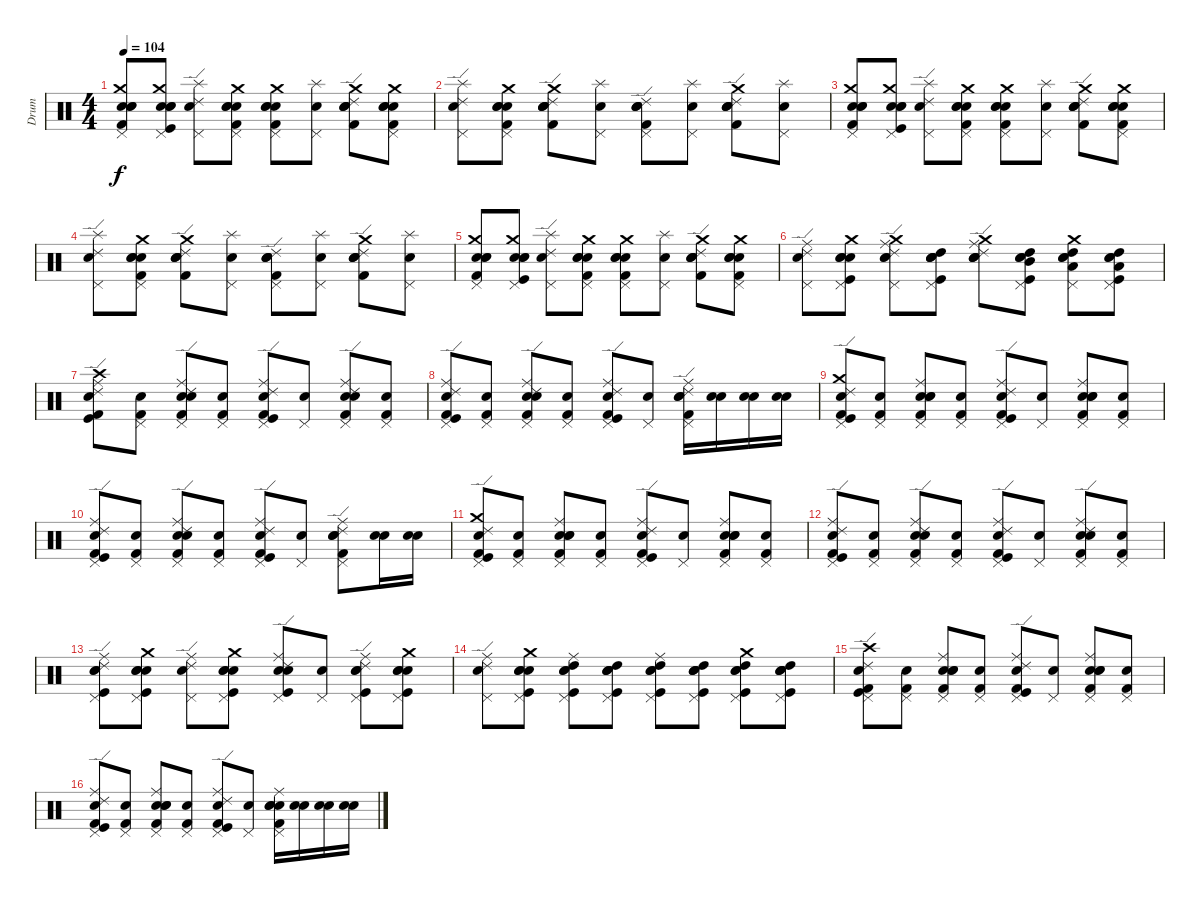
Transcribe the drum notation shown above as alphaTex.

\track ("Drum" "Drum") {instrument percussion}
\staff {score}
\articulation defaults
\ts (4 4)
\tempo 104
\clef neutral
\ks c
("Snare (hit)" "Kick (hit) 2" "Snare (hit) 2" "Pedal Hi-Hat (hit)" "Crash medium (hit)" "Electric Snare (hit)").8{dy f} ("Snare (hit)" "Pedal Hi-Hat (hit)" "Kick (hit)" "Snare (hit) 2" "Crash medium (hit)" "Electric Snare (hit)").8 ("Snare (hit)" "Pedal Hi-Hat (hit)" "Splash (hit)" "Ride (edge) 2").8 ("Snare (hit)" "Pedal Hi-Hat (hit)" "Snare (hit) 2" "Kick (hit) 2" "Crash medium (hit)" "Electric Snare (hit)").8 ("Snare (hit)" "Kick (hit) 2" "Snare (hit) 2" "Pedal Hi-Hat (hit)" "Crash medium (hit)" "Electric Snare (hit)").8 ("Snare (hit)" "Splash (hit)" "Pedal Hi-Hat (hit)").8 ("Snare (hit)" "Snare (hit) 2" "Kick (hit) 2" "Ride (edge) 2" "Crash medium (hit)" "Electric Snare (hit)").8 ("Snare (hit)" "Snare (hit) 2" "Kick (hit) 2" "Pedal Hi-Hat (hit)" "Crash medium (hit)" "Electric Snare (hit)").8 |
("Snare (hit)" "Pedal Hi-Hat (hit)" "Splash (hit)" "Ride (edge) 2").8 ("Snare (hit)" "Snare (hit) 2" "Kick (hit) 2" "Pedal Hi-Hat (hit)" "Crash medium (hit)" "Electric Snare (hit)").8 ("Snare (hit)" "Kick (hit) 2" "Snare (hit) 2" "Crash medium (hit)" "Ride (edge) 2" "Electric Snare (hit)").8 ("Snare (hit)" "Splash (hit)" "Pedal Hi-Hat (hit)").8 ("Snare (hit)" "Snare (hit) 2" "Kick (hit) 2" "Pedal Hi-Hat (hit)" "Ride (edge) 2" "Electric Snare (hit)").8 ("Snare (hit)" "Splash (hit)" "Pedal Hi-Hat (hit)").8 ("Snare (hit)" "Kick (hit) 2" "Snare (hit) 2" "Ride (edge) 2" "Crash medium (hit)" "Electric Snare (hit)").8 ("Snare (hit)" "Splash (hit)" "Pedal Hi-Hat (hit)").8 |
("Snare (hit)" "Kick (hit) 2" "Snare (hit) 2" "Pedal Hi-Hat (hit)" "Crash medium (hit)" "Electric Snare (hit)").8 ("Snare (hit)" "Pedal Hi-Hat (hit)" "Kick (hit)" "Snare (hit) 2" "Crash medium (hit)" "Electric Snare (hit)").8 ("Snare (hit)" "Pedal Hi-Hat (hit)" "Splash (hit)" "Ride (edge) 2").8 ("Snare (hit)" "Pedal Hi-Hat (hit)" "Snare (hit) 2" "Kick (hit) 2" "Crash medium (hit)" "Electric Snare (hit)").8 ("Snare (hit)" "Kick (hit) 2" "Snare (hit) 2" "Pedal Hi-Hat (hit)" "Crash medium (hit)" "Electric Snare (hit)").8 ("Snare (hit)" "Splash (hit)" "Pedal Hi-Hat (hit)").8 ("Snare (hit)" "Snare (hit) 2" "Kick (hit) 2" "Ride (edge) 2" "Crash medium (hit)" "Electric Snare (hit)").8 ("Snare (hit)" "Snare (hit) 2" "Kick (hit) 2" "Pedal Hi-Hat (hit)" "Crash medium (hit)" "Electric Snare (hit)").8 |
("Snare (hit)" "Pedal Hi-Hat (hit)" "Splash (hit)" "Ride (edge) 2").8 ("Snare (hit)" "Snare (hit) 2" "Kick (hit) 2" "Pedal Hi-Hat (hit)" "Crash medium (hit)" "Electric Snare (hit)").8 ("Snare (hit)" "Kick (hit) 2" "Snare (hit) 2" "Crash medium (hit)" "Ride (edge) 2" "Electric Snare (hit)").8 ("Snare (hit)" "Splash (hit)" "Pedal Hi-Hat (hit)").8 ("Snare (hit)" "Snare (hit) 2" "Kick (hit) 2" "Pedal Hi-Hat (hit)" "Ride (edge) 2" "Electric Snare (hit)").8 ("Snare (hit)" "Splash (hit)" "Pedal Hi-Hat (hit)").8 ("Snare (hit)" "Kick (hit) 2" "Snare (hit) 2" "Ride (edge) 2" "Crash medium (hit)" "Electric Snare (hit)").8 ("Snare (hit)" "Splash (hit)" "Pedal Hi-Hat (hit)").8 |
("Snare (hit)" "Kick (hit) 2" "Snare (hit) 2" "Pedal Hi-Hat (hit)" "Crash medium (hit)" "Electric Snare (hit)").8 ("Snare (hit)" "Pedal Hi-Hat (hit)" "Kick (hit)" "Snare (hit) 2" "Crash medium (hit)" "Electric Snare (hit)").8 ("Snare (hit)" "Pedal Hi-Hat (hit)" "Splash (hit)" "Ride (edge) 2").8 ("Snare (hit)" "Pedal Hi-Hat (hit)" "Snare (hit) 2" "Kick (hit) 2" "Crash medium (hit)" "Electric Snare (hit)").8 ("Snare (hit)" "Kick (hit) 2" "Snare (hit) 2" "Pedal Hi-Hat (hit)" "Crash medium (hit)" "Electric Snare (hit)").8 ("Snare (hit)" "Splash (hit)" "Pedal Hi-Hat (hit)").8 ("Snare (hit)" "Snare (hit) 2" "Kick (hit) 2" "Ride (edge) 2" "Crash medium (hit)" "Electric Snare (hit)").8 ("Snare (hit)" "Snare (hit) 2" "Kick (hit) 2" "Pedal Hi-Hat (hit)" "Crash medium (hit)" "Electric Snare (hit)").8 |
("Snare (hit)" "Ride (middle)" "Ride (edge) 2" "Pedal Hi-Hat (hit)").8 ("Snare (hit)" "Crash medium (hit)" "Electric Snare (hit)" "Pedal Hi-Hat (hit)" "Kick (hit)" "Snare (hit) 2").8 ("Snare (hit)" "Ride (middle)" "Crash medium (hit)" "Ride (edge) 2" "Electric Snare (hit)" "Pedal Hi-Hat (hit)").8 ("Snare (hit)" "Electric Snare (hit)" "High Tom (hit)" "Kick (hit)" "Snare (hit) 2" "Pedal Hi-Hat (hit)").8 ("Snare (hit)" "Ride (middle)" "Crash medium (hit)" "Ride (edge) 2" "Electric Snare (hit)" "Snare (hit) 2").8 ("Snare (hit)" "Electric Snare (hit)" "Mid Tom (hit)" "High Tom (hit)" "Kick (hit)" "Pedal Hi-Hat (hit)").8 ("Snare (hit)" "Crash medium (hit)" "Electric Snare (hit)" "Low Tom (hit)" "High Tom (hit)" "Pedal Hi-Hat (hit)").8 ("Snare (hit)" "Electric Snare (hit)" "Low Tom (hit)" "High Tom (hit)" "Kick (hit)" "Pedal Hi-Hat (hit)").8 |
("Snare (hit)" "Kick (hit) 2" "Ride (middle)" "Ride (edge) 2" "Crash high (hit)" "Kick (hit)").8 ("Snare (hit)" "Kick (hit) 2" "Pedal Hi-Hat (hit)").8 ("Snare (hit)" "Ride (middle)" "Ride (edge) 2" "Pedal Hi-Hat (hit)" "Snare (hit) 2" "Kick (hit) 2").8 ("Snare (hit)" "Kick (hit) 2" "Pedal Hi-Hat (hit)").8 ("Snare (hit)" "Kick (hit) 2" "Ride (middle)" "Ride (edge) 2" "Pedal Hi-Hat (hit)" "Kick (hit)").8 ("Snare (hit)" "Pedal Hi-Hat (hit)").8 ("Snare (hit)" "Ride (middle)" "Ride (edge) 2" "Pedal Hi-Hat (hit)" "Electric Snare (hit)" "Kick (hit) 2").8 ("Snare (hit)" "Kick (hit) 2" "Pedal Hi-Hat (hit)").8 |
("Snare (hit)" "Kick (hit) 2" "Ride (middle)" "Ride (edge) 2" "Kick (hit)" "Pedal Hi-Hat (hit)").8 ("Snare (hit)" "Kick (hit) 2" "Pedal Hi-Hat (hit)").8 ("Snare (hit)" "Ride (middle)" "Ride (edge) 2" "Kick (hit) 2" "Electric Snare (hit)" "Pedal Hi-Hat (hit)").8 ("Snare (hit)" "Kick (hit) 2" "Pedal Hi-Hat (hit)").8 ("Snare (hit)" "Kick (hit) 2" "Ride (middle)" "Ride (edge) 2" "Kick (hit)" "Pedal Hi-Hat (hit)").8 ("Snare (hit)" "Pedal Hi-Hat (hit)").8 ("Snare (hit)" "Ride (middle)" "Ride (edge) 2" "Kick (hit) 2" "Snare (hit) 2" "Pedal Hi-Hat (hit)").16 ("Snare (hit)" "Snare (hit) 2").16 ("Snare (hit)" "Snare (hit) 2").16 ("Snare (hit)" "Snare (hit) 2").16 |
("Snare (hit)" "Kick (hit)" "Pedal Hi-Hat (hit)" "Crash medium (hit)" "Ride (edge) 2" "Kick (hit) 2").8 ("Snare (hit)" "Pedal Hi-Hat (hit)" "Kick (hit) 2").8 ("Snare (hit)" "Kick (hit) 2" "Electric Snare (hit)" "Snare (hit) 2" "Pedal Hi-Hat (hit)" "Ride (middle)").8 ("Snare (hit)" "Pedal Hi-Hat (hit)" "Kick (hit) 2").8 ("Snare (hit)" "Kick (hit)" "Pedal Hi-Hat (hit)" "Ride (edge) 2" "Ride (middle)" "Kick (hit) 2").8 ("Snare (hit)" "Pedal Hi-Hat (hit)").8 ("Snare (hit)" "Kick (hit) 2" "Snare (hit) 2" "Electric Snare (hit)" "Pedal Hi-Hat (hit)" "Ride (middle)").8 ("Snare (hit)" "Pedal Hi-Hat (hit)" "Kick (hit) 2").8 |
("Snare (hit)" "Kick (hit) 2" "Ride (middle)" "Ride (edge) 2" "Pedal Hi-Hat (hit)" "Kick (hit)").8 ("Snare (hit)" "Kick (hit) 2" "Pedal Hi-Hat (hit)").8 ("Snare (hit)" "Ride (middle)" "Ride (edge) 2" "Pedal Hi-Hat (hit)" "Snare (hit) 2" "Kick (hit) 2").8 ("Snare (hit)" "Kick (hit) 2" "Pedal Hi-Hat (hit)").8 ("Snare (hit)" "Kick (hit) 2" "Ride (middle)" "Ride (edge) 2" "Pedal Hi-Hat (hit)" "Kick (hit)").8 ("Snare (hit)" "Pedal Hi-Hat (hit)").8 ("Snare (hit)" "Ride (middle)" "Ride (edge) 2" "Pedal Hi-Hat (hit)" "Electric Snare (hit)" "Kick (hit) 2").8 ("Snare (hit)" "Snare (hit) 2").16 ("Snare (hit)" "Snare (hit) 2").16 |
("Snare (hit)" "Kick (hit)" "Pedal Hi-Hat (hit)" "Crash medium (hit)" "Ride (edge) 2" "Kick (hit) 2").8 ("Snare (hit)" "Pedal Hi-Hat (hit)" "Kick (hit) 2").8 ("Snare (hit)" "Kick (hit) 2" "Electric Snare (hit)" "Snare (hit) 2" "Pedal Hi-Hat (hit)" "Ride (middle)").8 ("Snare (hit)" "Pedal Hi-Hat (hit)" "Kick (hit) 2").8 ("Snare (hit)" "Kick (hit)" "Pedal Hi-Hat (hit)" "Ride (edge) 2" "Ride (middle)" "Kick (hit) 2").8 ("Snare (hit)" "Pedal Hi-Hat (hit)").8 ("Snare (hit)" "Kick (hit) 2" "Snare (hit) 2" "Electric Snare (hit)" "Pedal Hi-Hat (hit)" "Ride (middle)").8 ("Snare (hit)" "Pedal Hi-Hat (hit)" "Kick (hit) 2").8 |
("Snare (hit)" "Kick (hit) 2" "Ride (middle)" "Ride (edge) 2" "Pedal Hi-Hat (hit)" "Kick (hit)").8 ("Snare (hit)" "Kick (hit) 2" "Pedal Hi-Hat (hit)").8 ("Snare (hit)" "Ride (middle)" "Ride (edge) 2" "Pedal Hi-Hat (hit)" "Snare (hit) 2" "Kick (hit) 2").8 ("Snare (hit)" "Kick (hit) 2" "Pedal Hi-Hat (hit)").8 ("Snare (hit)" "Kick (hit) 2" "Ride (middle)" "Ride (edge) 2" "Pedal Hi-Hat (hit)" "Kick (hit)").8 ("Snare (hit)" "Pedal Hi-Hat (hit)").8 ("Snare (hit)" "Ride (middle)" "Ride (edge) 2" "Pedal Hi-Hat (hit)" "Electric Snare (hit)" "Kick (hit) 2").8 ("Snare (hit)" "Kick (hit) 2" "Pedal Hi-Hat (hit)").8 |
("Snare (hit)" "Kick (hit)" "Snare (hit) 2" "Pedal Hi-Hat (hit)" "Ride (edge) 2" "Ride (middle)").8 ("Snare (hit)" "Snare (hit) 2" "Pedal Hi-Hat (hit)" "Kick (hit)" "Crash medium (hit)" "Electric Snare (hit)").8 ("Snare (hit)" "Pedal Hi-Hat (hit)" "Ride (edge) 2" "Ride (middle)").8 ("Snare (hit)" "Kick (hit)" "Pedal Hi-Hat (hit)" "Snare (hit) 2" "Crash medium (hit)" "Electric Snare (hit)").8 ("Snare (hit)" "Snare (hit) 2" "Pedal Hi-Hat (hit)" "Kick (hit)" "Ride (edge) 2" "Ride (middle)").8 ("Snare (hit)" "Pedal Hi-Hat (hit)").8 ("Snare (hit)" "Pedal Hi-Hat (hit)" "Kick (hit)" "Snare (hit) 2" "Ride (edge) 2" "Ride (middle)").8 ("Snare (hit)" "Kick (hit)" "Snare (hit) 2" "Pedal Hi-Hat (hit)" "Crash medium (hit)" "Electric Snare (hit)").8 |
("Snare (hit)" "Pedal Hi-Hat (hit)" "Ride (edge) 2" "Ride (middle)").8 ("Snare (hit)" "Snare (hit) 2" "Kick (hit)" "Pedal Hi-Hat (hit)" "Electric Snare (hit)" "Crash medium (hit)").8 ("Snare (hit)" "Pedal Hi-Hat (hit)" "Kick (hit)" "Snare (hit) 2" "High Tom (hit)" "Ride (middle)").8 ("Snare (hit)" "Pedal Hi-Hat (hit)" "Snare (hit) 2" "Kick (hit)" "High Tom (hit)" "Electric Snare (hit)").8 ("Snare (hit)" "Snare (hit) 2" "Kick (hit)" "Pedal Hi-Hat (hit)" "High Tom (hit)" "Ride (middle)").8 ("Snare (hit)" "Pedal Hi-Hat (hit)" "Snare (hit) 2" "Kick (hit)" "High Tom (hit)" "Electric Snare (hit)").8 ("Snare (hit)" "Pedal Hi-Hat (hit)" "Kick (hit)" "Snare (hit) 2" "High Tom (hit)" "Crash medium (hit)").8 ("Snare (hit)" "Pedal Hi-Hat (hit)" "Snare (hit) 2" "Kick (hit)" "High Tom (hit)" "Electric Snare (hit)").8 |
("Snare (hit)" "Kick (hit)" "Pedal Hi-Hat (hit)" "Crash high (hit)" "Ride (edge) 2" "Kick (hit) 2").8 ("Snare (hit)" "Pedal Hi-Hat (hit)" "Kick (hit) 2").8 ("Snare (hit)" "Kick (hit) 2" "Electric Snare (hit)" "Snare (hit) 2" "Pedal Hi-Hat (hit)" "Ride (middle)").8 ("Snare (hit)" "Pedal Hi-Hat (hit)" "Kick (hit) 2").8 ("Snare (hit)" "Kick (hit)" "Pedal Hi-Hat (hit)" "Ride (edge) 2" "Ride (middle)" "Kick (hit) 2").8 ("Snare (hit)" "Pedal Hi-Hat (hit)").8 ("Snare (hit)" "Kick (hit) 2" "Snare (hit) 2" "Electric Snare (hit)" "Pedal Hi-Hat (hit)" "Ride (middle)").8 ("Snare (hit)" "Pedal Hi-Hat (hit)" "Kick (hit) 2").8 |
("Snare (hit)" "Pedal Hi-Hat (hit)" "Kick (hit)" "Ride (edge) 2" "Ride (middle)" "Kick (hit) 2").8 ("Snare (hit)" "Pedal Hi-Hat (hit)" "Kick (hit) 2").8 ("Snare (hit)" "Pedal Hi-Hat (hit)" "Snare (hit) 2" "Electric Snare (hit)" "Kick (hit) 2" "Ride (middle)").8 ("Snare (hit)" "Pedal Hi-Hat (hit)" "Kick (hit) 2").8 ("Snare (hit)" "Pedal Hi-Hat (hit)" "Kick (hit)" "Ride (edge) 2" "Ride (middle)" "Kick (hit) 2").8 ("Snare (hit)" "Pedal Hi-Hat (hit)").8 ("Snare (hit)" "Pedal Hi-Hat (hit)" "Electric Snare (hit)" "Snare (hit) 2" "Kick (hit) 2" "Ride (middle)").16 ("Snare (hit)" "Snare (hit) 2").16 ("Snare (hit)" "Snare (hit) 2").16 ("Snare (hit)" "Snare (hit) 2").16
